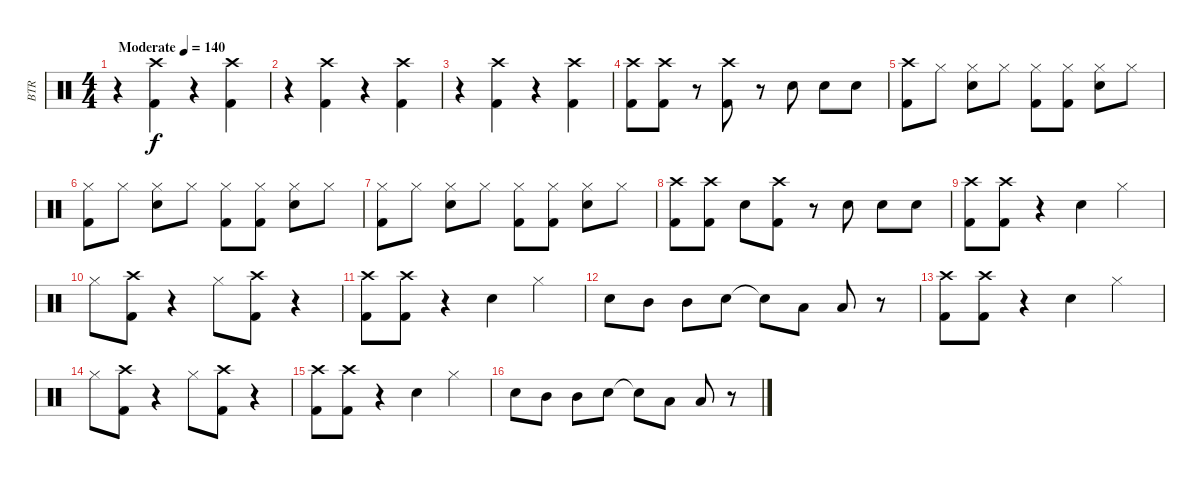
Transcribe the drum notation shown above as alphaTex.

\track ("BTR" "BTR") {instrument percussion}
\staff {score}
\articulation defaults
\ts (4 4)
\tempo (140 "Moderate")
\clef neutral
\ks c
r.4{dy f} ("Crash high (hit)" "Kick (hit) 2").4 r.4 ("Crash high (hit)" "Kick (hit) 2").4 |
r.4 ("Crash high (hit)" "Kick (hit) 2").4 r.4 ("Crash high (hit)" "Kick (hit) 2").4 |
r.4 ("Crash high (hit)" "Kick (hit) 2").4 r.4 ("Crash high (hit)" "Kick (hit) 2").4 |
("Crash high (hit)" "Kick (hit) 2").8 ("Crash high (hit)" "Kick (hit) 2").8 r.8 ("Crash high (hit)" "Kick (hit) 2").8 r.8 "Snare (hit) 2".8 "Snare (hit) 2".8 "Snare (hit) 2".8 |
("Crash high (hit)" "Kick (hit) 2").8 "Hi-Hat (closed)".8 ("Hi-Hat (closed)" "Snare (hit) 2").8 "Hi-Hat (closed)".8 ("Hi-Hat (closed)" "Kick (hit) 2").8 ("Hi-Hat (closed)" "Kick (hit) 2").8 ("Hi-Hat (closed)" "Snare (hit) 2").8 "Hi-Hat (closed)".8 |
("Hi-Hat (closed)" "Kick (hit) 2").8 "Hi-Hat (closed)".8 ("Hi-Hat (closed)" "Snare (hit) 2").8 "Hi-Hat (closed)".8 ("Hi-Hat (closed)" "Kick (hit) 2").8 ("Hi-Hat (closed)" "Kick (hit) 2").8 ("Hi-Hat (closed)" "Snare (hit) 2").8 "Hi-Hat (closed)".8 |
("Hi-Hat (closed)" "Kick (hit) 2").8 "Hi-Hat (closed)".8 ("Hi-Hat (closed)" "Snare (hit) 2").8 "Hi-Hat (closed)".8 ("Hi-Hat (closed)" "Kick (hit) 2").8 ("Hi-Hat (closed)" "Kick (hit) 2").8 ("Hi-Hat (closed)" "Snare (hit) 2").8 "Hi-Hat (closed)".8 |
("Crash high (hit)" "Kick (hit) 2").8 ("Crash high (hit)" "Kick (hit) 2").8 "Snare (hit) 2".8 ("Crash high (hit)" "Kick (hit) 2").8 r.8 "Snare (hit) 2".8 "Snare (hit) 2".8 "Snare (hit) 2".8 |
("Crash high (hit)" "Kick (hit) 2").8 ("Crash high (hit)" "Kick (hit) 2").8 r.4 "Snare (hit) 2".4 "Hi-Hat (closed)".4 |
"Hi-Hat (closed)".8 ("Crash high (hit)" "Kick (hit) 2").8 r.4 "Hi-Hat (closed)".8 ("Crash high (hit)" "Kick (hit) 2").8 r.4 |
("Crash high (hit)" "Kick (hit) 2").8 ("Crash high (hit)" "Kick (hit) 2").8 r.4 "Snare (hit) 2".4 "Hi-Hat (closed)".4 |
"Snare (hit) 2".8 "Mid Tom (hit)".8 "Mid Tom (hit)".8 "Snare (hit) 2".8 "Snare (hit)"{t}.8 "Low Tom (hit)".8 "Low Tom (hit)".8 r.8 |
("Crash high (hit)" "Kick (hit) 2").8 ("Crash high (hit)" "Kick (hit) 2").8 r.4 "Snare (hit) 2".4 "Hi-Hat (closed)".4 |
"Hi-Hat (closed)".8 ("Crash high (hit)" "Kick (hit) 2").8 r.4 "Hi-Hat (closed)".8 ("Crash high (hit)" "Kick (hit) 2").8 r.4 |
("Crash high (hit)" "Kick (hit) 2").8 ("Crash high (hit)" "Kick (hit) 2").8 r.4 "Snare (hit) 2".4 "Hi-Hat (closed)".4 |
"Snare (hit) 2".8 "Mid Tom (hit)".8 "Mid Tom (hit)".8 "Snare (hit) 2".8 "Snare (hit)"{t}.8 "Low Tom (hit)".8 "Low Tom (hit)".8 r.8
